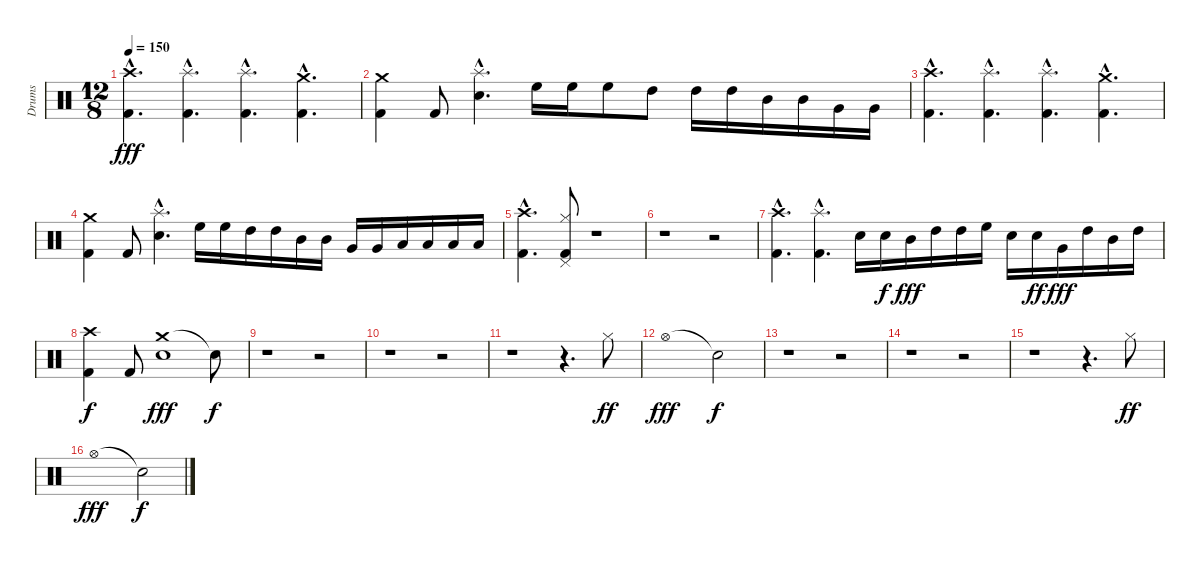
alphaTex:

\track ("Drums" "Drums") {instrument percussion}
\staff {score}
\articulation defaults
\ts (12 8)
\tempo 150
\clef neutral
\ks c
("Crash high (hit)"{hac} "Kick (hit) 2"{hac}).4{d dy fff} ("Splash (hit)"{hac} "Kick (hit) 2"{hac}).4{d} ("Splash (hit)"{hac} "Kick (hit) 2"{hac}).4{d} ("Crash medium (hit)"{hac} "Kick (hit) 2"{hac}).4{d} |
("Crash medium (hit)" "Kick (hit) 2").4 "Kick (hit) 2".8 ("Splash (hit)"{hac} "Snare (hit) 2").4{d} "High Floor Tom (hit)".16 "High Floor Tom (hit)".16 "High Floor Tom (hit)".8 "High Tom (hit)".8 "High Tom (hit)".16 "High Tom (hit)".16 "Mid Tom (hit)".16 "Mid Tom (hit)".16 "Very Low Tom (hit)".16 "Very Low Tom (hit)".16 |
("Crash high (hit)"{hac} "Kick (hit) 2"{hac}).4{d} ("Splash (hit)"{hac} "Kick (hit) 2"{hac}).4{d} ("Splash (hit)"{hac} "Kick (hit) 2"{hac}).4{d} ("Crash medium (hit)"{hac} "Kick (hit) 2"{hac}).4{d} |
("Crash medium (hit)" "Kick (hit) 2").4 "Kick (hit) 2".8 ("Splash (hit)"{hac} "Snare (hit) 2").4{d} "High Floor Tom (hit)".16 "High Floor Tom (hit)".16 "High Tom (hit)".16 "High Tom (hit)".16 "Mid Tom (hit)".16 "Mid Tom (hit)".16 "Very Low Tom (hit)".16 "Very Low Tom (hit)".16 "Low Floor Tom (hit)".16 "Low Floor Tom (hit)".16 "Low Floor Tom (hit)".16 "Low Floor Tom (hit)".16 |
("Crash high (hit)"{hac} "Kick (hit) 2"{hac}).4{d} ("Hi-Hat (closed)" "Pedal Hi-Hat (hit)" "Kick (hit) 2").8 r.1 |
r.1 r.2 |
("Crash high (hit)"{hac} "Kick (hit) 2"{hac}).4{d} ("Splash (hit)"{hac} "Kick (hit) 2"{hac}).4{d} "Snare (hit) 2".16 "Snare (hit) 2".16{dy f} "Mid Tom (hit)".16{dy fff} "High Tom (hit)".16 "High Tom (hit)".16 "High Floor Tom (hit)".16 "Snare (hit) 2".16 "Snare (hit) 2".16{dy ff} "Very Low Tom (hit)".16{dy fff} "High Tom (hit)".16 "Mid Tom (hit)".16 "High Tom (hit)".16 |
("Crash high (hit)" "Kick (hit) 2").4{dy f} "Kick (hit) 2".8 ("Crash medium (hit)" "Snare (hit) 2").1{dy fff} "Snare (hit)"{t}.8{dy f} |
r.1 r.2 |
r.1 r.2 |
r.1 r.4{d} "Hi-Hat (closed)".8{dy ff} |
"Hi-Hat (open)".1{dy fff} "Snare (hit)"{t}.2{dy f} |
r.1 r.2 |
r.1 r.2 |
r.1 r.4{d} "Hi-Hat (closed)".8{dy ff} |
"Hi-Hat (open)".1{dy fff} "Snare (hit)"{t}.2{dy f}
